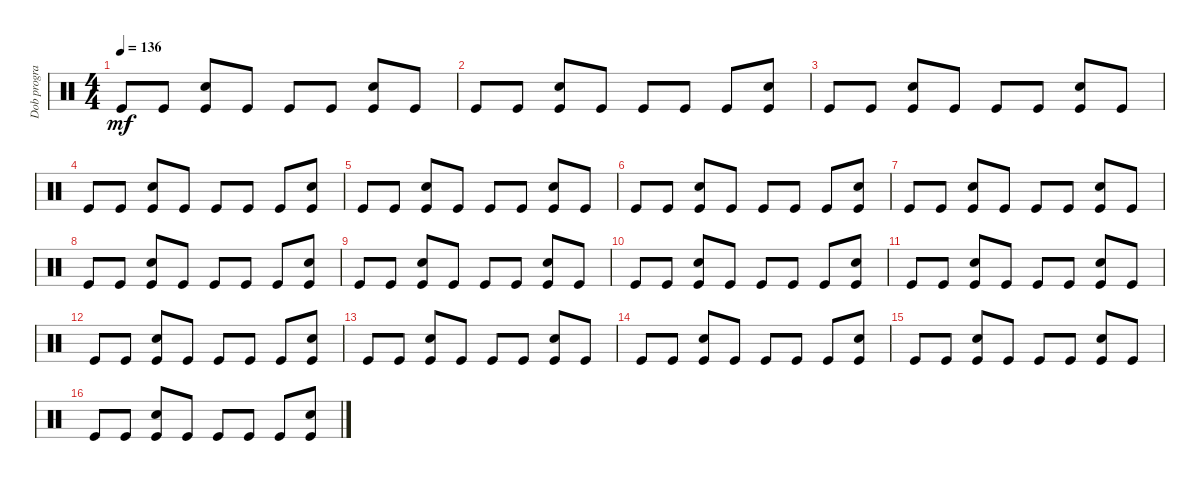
\track ("Dob program" "Dob progra") {instrument percussion}
\staff {score}
\articulation defaults
\ts (4 4)
\tempo 136
\clef neutral
\ks c "Kick (hit)".8{dy mf} "Kick (hit)".8
("Electric Snare (hit)" "Kick (hit)").8 "Kick (hit)".8 "Kick (hit)".8 "Kick (hit)".8 ("Electric Snare (hit)" "Kick (hit)").8 "Kick (hit)".8 |
"Kick (hit)".8 "Kick (hit)".8 ("Electric Snare (hit)" "Kick (hit)").8 "Kick (hit)".8 "Kick (hit)".8 "Kick (hit)".8 "Kick (hit)".8 ("Electric Snare (hit)" "Kick (hit)").8 |
"Kick (hit)".8 "Kick (hit)".8 ("Electric Snare (hit)" "Kick (hit)").8 "Kick (hit)".8 "Kick (hit)".8 "Kick (hit)".8 ("Electric Snare (hit)" "Kick (hit)").8 "Kick (hit)".8 |
"Kick (hit)".8 "Kick (hit)".8 ("Electric Snare (hit)" "Kick (hit)").8 "Kick (hit)".8 "Kick (hit)".8 "Kick (hit)".8 "Kick (hit)".8 ("Electric Snare (hit)" "Kick (hit)").8 |
"Kick (hit)".8 "Kick (hit)".8 ("Electric Snare (hit)" "Kick (hit)").8 "Kick (hit)".8 "Kick (hit)".8 "Kick (hit)".8 ("Electric Snare (hit)" "Kick (hit)").8 "Kick (hit)".8 |
"Kick (hit)".8 "Kick (hit)".8 ("Electric Snare (hit)" "Kick (hit)").8 "Kick (hit)".8 "Kick (hit)".8 "Kick (hit)".8 "Kick (hit)".8 ("Electric Snare (hit)" "Kick (hit)").8 |
"Kick (hit)".8 "Kick (hit)".8 ("Electric Snare (hit)" "Kick (hit)").8 "Kick (hit)".8 "Kick (hit)".8 "Kick (hit)".8 ("Electric Snare (hit)" "Kick (hit)").8 "Kick (hit)".8 |
"Kick (hit)".8 "Kick (hit)".8 ("Electric Snare (hit)" "Kick (hit)").8 "Kick (hit)".8 "Kick (hit)".8 "Kick (hit)".8 "Kick (hit)".8 ("Electric Snare (hit)" "Kick (hit)").8 |
"Kick (hit)".8 "Kick (hit)".8 ("Electric Snare (hit)" "Kick (hit)").8 "Kick (hit)".8 "Kick (hit)".8 "Kick (hit)".8 ("Electric Snare (hit)" "Kick (hit)").8 "Kick (hit)".8 |
"Kick (hit)".8 "Kick (hit)".8 ("Electric Snare (hit)" "Kick (hit)").8 "Kick (hit)".8 "Kick (hit)".8 "Kick (hit)".8 "Kick (hit)".8 ("Electric Snare (hit)" "Kick (hit)").8 |
"Kick (hit)".8 "Kick (hit)".8 ("Electric Snare (hit)" "Kick (hit)").8 "Kick (hit)".8 "Kick (hit)".8 "Kick (hit)".8 ("Electric Snare (hit)" "Kick (hit)").8 "Kick (hit)".8 |
"Kick (hit)".8 "Kick (hit)".8 ("Electric Snare (hit)" "Kick (hit)").8 "Kick (hit)".8 "Kick (hit)".8 "Kick (hit)".8 "Kick (hit)".8 ("Electric Snare (hit)" "Kick (hit)").8 |
"Kick (hit)".8 "Kick (hit)".8 ("Electric Snare (hit)" "Kick (hit)").8 "Kick (hit)".8 "Kick (hit)".8 "Kick (hit)".8 ("Electric Snare (hit)" "Kick (hit)").8 "Kick (hit)".8 |
"Kick (hit)".8 "Kick (hit)".8 ("Electric Snare (hit)" "Kick (hit)").8 "Kick (hit)".8 "Kick (hit)".8 "Kick (hit)".8 "Kick (hit)".8 ("Electric Snare (hit)" "Kick (hit)").8 |
"Kick (hit)".8 "Kick (hit)".8 ("Electric Snare (hit)" "Kick (hit)").8 "Kick (hit)".8 "Kick (hit)".8 "Kick (hit)".8 ("Electric Snare (hit)" "Kick (hit)").8 "Kick (hit)".8 |
"Kick (hit)".8 "Kick (hit)".8 ("Electric Snare (hit)" "Kick (hit)").8 "Kick (hit)".8 "Kick (hit)".8 "Kick (hit)".8 "Kick (hit)".8 ("Electric Snare (hit)" "Kick (hit)").8
